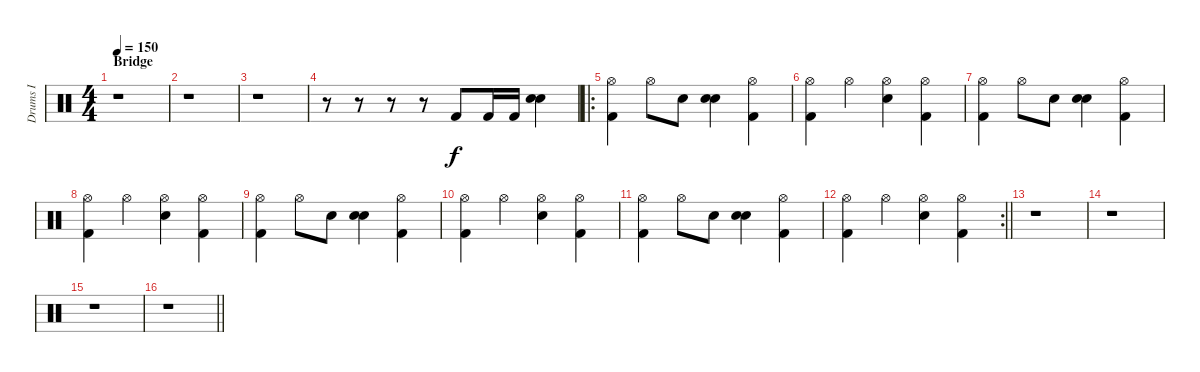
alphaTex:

\track ("Drums I" "Drums I") {instrument percussion}
\staff {score}
\articulation defaults
\ts (4 4)
\section ("" "Bridge")
\tempo 150
\clef neutral
\ks c
r.1{dy f} |
r.1 |
r.1 |
r.8 r.8 r.8 r.8 "Kick (hit) 2".8 "Kick (hit) 2".16 "Kick (hit) 2".16 ("Snare (hit) 2" "Electric Snare (hit)").4 |
\ro
("Hi-Hat (open)" "Kick (hit) 2").4 "Hi-Hat (open)".8 "Snare (hit) 2".8 ("Snare (hit) 2" "Electric Snare (hit)").4 ("Hi-Hat (open)" "Kick (hit) 2").4 |
("Hi-Hat (open)" "Kick (hit) 2").4 "Hi-Hat (open)".4 ("Hi-Hat (open)" "Electric Snare (hit)").4 ("Hi-Hat (open)" "Kick (hit) 2").4 |
("Hi-Hat (open)" "Kick (hit) 2").4 "Hi-Hat (open)".8 "Snare (hit) 2".8 ("Snare (hit) 2" "Electric Snare (hit)").4 ("Hi-Hat (open)" "Kick (hit) 2").4 |
("Hi-Hat (open)" "Kick (hit) 2").4 "Hi-Hat (open)".4 ("Hi-Hat (open)" "Electric Snare (hit)").4 ("Hi-Hat (open)" "Kick (hit) 2").4 |
("Hi-Hat (open)" "Kick (hit) 2").4 "Hi-Hat (open)".8 "Snare (hit) 2".8 ("Snare (hit) 2" "Electric Snare (hit)").4 ("Hi-Hat (open)" "Kick (hit) 2").4 |
("Hi-Hat (open)" "Kick (hit) 2").4 "Hi-Hat (open)".4 ("Hi-Hat (open)" "Electric Snare (hit)").4 ("Hi-Hat (open)" "Kick (hit) 2").4 |
("Hi-Hat (open)" "Kick (hit) 2").4 "Hi-Hat (open)".8 "Snare (hit) 2".8 ("Snare (hit) 2" "Electric Snare (hit)").4 ("Hi-Hat (open)" "Kick (hit) 2").4 |
\rc 2
\barLineRight lightlight
("Hi-Hat (open)" "Kick (hit) 2").4 "Hi-Hat (open)".4 ("Hi-Hat (open)" "Electric Snare (hit)").4 ("Hi-Hat (open)" "Kick (hit) 2").4 |
r.1 |
r.1 |
r.1 |
\barLineRight lightlight
r.1
